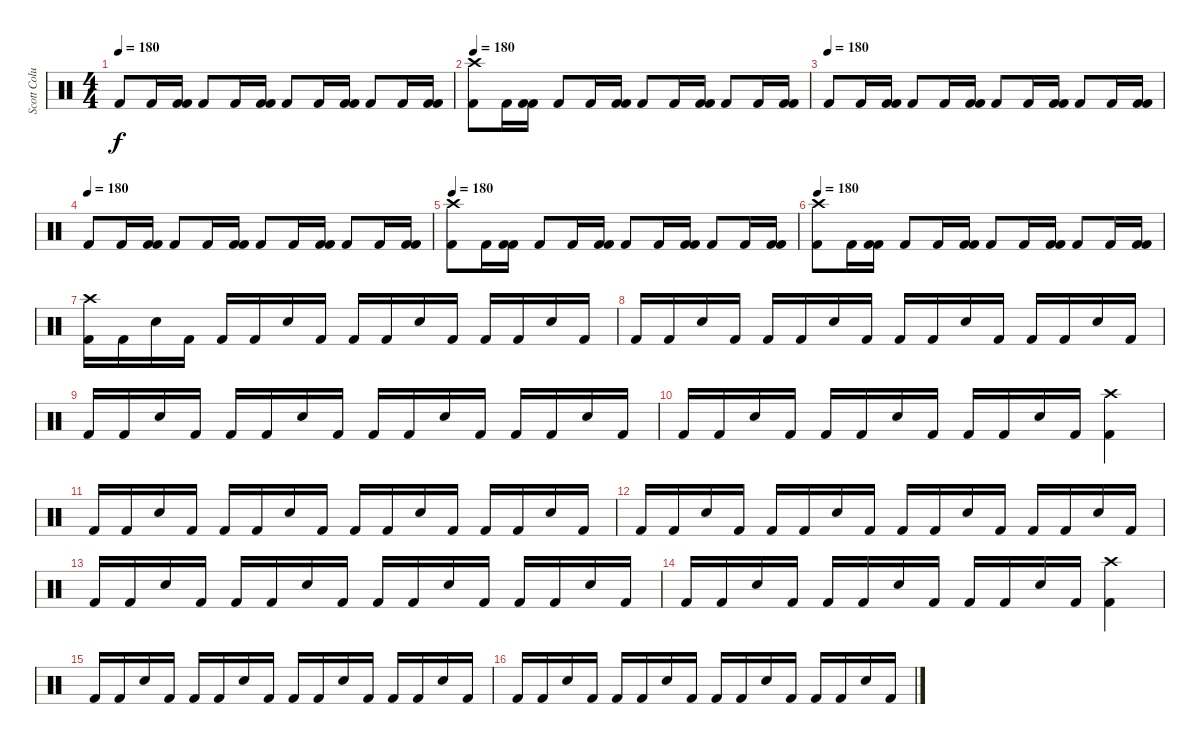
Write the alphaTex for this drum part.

\track ("Scott Columbus" "Scott Colu") {instrument percussion}
\staff {score}
\articulation defaults
\ts (4 4)
\tempo 180
\clef neutral
\ks c "Kick (hit) 2".8{dy f} "Kick (hit) 2".16
("Kick (hit) 2" "Kick (hit) 2").16 "Kick (hit) 2".8 "Kick (hit) 2".16 ("Kick (hit) 2" "Kick (hit) 2").16 "Kick (hit) 2".8 "Kick (hit) 2".16 ("Kick (hit) 2" "Kick (hit) 2").16 "Kick (hit) 2".8 "Kick (hit) 2".16 ("Kick (hit) 2" "Kick (hit) 2").16 |
\tempo 180
("Crash high (hit)" "Kick (hit) 2").8 "Kick (hit) 2".16 ("Kick (hit) 2" "Kick (hit) 2").16 "Kick (hit) 2".8 "Kick (hit) 2".16 ("Kick (hit) 2" "Kick (hit) 2").16 "Kick (hit) 2".8 "Kick (hit) 2".16 ("Kick (hit) 2" "Kick (hit) 2").16 "Kick (hit) 2".8 "Kick (hit) 2".16 ("Kick (hit) 2" "Kick (hit) 2").16 |
\tempo (180)
"Kick (hit) 2".8 "Kick (hit) 2".16 ("Kick (hit) 2" "Kick (hit) 2").16 "Kick (hit) 2".8 "Kick (hit) 2".16 ("Kick (hit) 2" "Kick (hit) 2").16 "Kick (hit) 2".8 "Kick (hit) 2".16 ("Kick (hit) 2" "Kick (hit) 2").16 "Kick (hit) 2".8 "Kick (hit) 2".16 ("Kick (hit) 2" "Kick (hit) 2").16 |
\tempo (180)
"Kick (hit) 2".8 "Kick (hit) 2".16 ("Kick (hit) 2" "Kick (hit) 2").16 "Kick (hit) 2".8 "Kick (hit) 2".16 ("Kick (hit) 2" "Kick (hit) 2").16 "Kick (hit) 2".8 "Kick (hit) 2".16 ("Kick (hit) 2" "Kick (hit) 2").16 "Kick (hit) 2".8 "Kick (hit) 2".16 ("Kick (hit) 2" "Kick (hit) 2").16 |
\tempo 180
("Crash high (hit)" "Kick (hit) 2").8 "Kick (hit) 2".16 ("Kick (hit) 2" "Kick (hit) 2").16 "Kick (hit) 2".8 "Kick (hit) 2".16 ("Kick (hit) 2" "Kick (hit) 2").16 "Kick (hit) 2".8 "Kick (hit) 2".16 ("Kick (hit) 2" "Kick (hit) 2").16 "Kick (hit) 2".8 "Kick (hit) 2".16 ("Kick (hit) 2" "Kick (hit) 2").16 |
\tempo 180
("Crash high (hit)" "Kick (hit) 2").8 "Kick (hit) 2".16 ("Kick (hit) 2" "Kick (hit) 2").16 "Kick (hit) 2".8 "Kick (hit) 2".16 ("Kick (hit) 2" "Kick (hit) 2").16 "Kick (hit) 2".8 "Kick (hit) 2".16 ("Kick (hit) 2" "Kick (hit) 2").16 "Kick (hit) 2".8 "Kick (hit) 2".16 ("Kick (hit) 2" "Kick (hit) 2").16 |
("Crash high (hit)" "Kick (hit) 2").16 "Kick (hit) 2".16 "Snare (hit) 2".16 "Kick (hit) 2".16 "Kick (hit) 2".16 "Kick (hit) 2".16 "Snare (hit) 2".16 "Kick (hit) 2".16 "Kick (hit) 2".16 "Kick (hit) 2".16 "Snare (hit) 2".16 "Kick (hit) 2".16 "Kick (hit) 2".16 "Kick (hit) 2".16 "Snare (hit) 2".16 "Kick (hit) 2".16 |
"Kick (hit) 2".16 "Kick (hit) 2".16 "Snare (hit) 2".16 "Kick (hit) 2".16 "Kick (hit) 2".16 "Kick (hit) 2".16 "Snare (hit) 2".16 "Kick (hit) 2".16 "Kick (hit) 2".16 "Kick (hit) 2".16 "Snare (hit) 2".16 "Kick (hit) 2".16 "Kick (hit) 2".16 "Kick (hit) 2".16 "Snare (hit) 2".16 "Kick (hit) 2".16 |
"Kick (hit) 2".16 "Kick (hit) 2".16 "Snare (hit) 2".16 "Kick (hit) 2".16 "Kick (hit) 2".16 "Kick (hit) 2".16 "Snare (hit) 2".16 "Kick (hit) 2".16 "Kick (hit) 2".16 "Kick (hit) 2".16 "Snare (hit) 2".16 "Kick (hit) 2".16 "Kick (hit) 2".16 "Kick (hit) 2".16 "Snare (hit) 2".16 "Kick (hit) 2".16 |
"Kick (hit) 2".16 "Kick (hit) 2".16 "Snare (hit) 2".16 "Kick (hit) 2".16 "Kick (hit) 2".16 "Kick (hit) 2".16 "Snare (hit) 2".16 "Kick (hit) 2".16 "Kick (hit) 2".16 "Kick (hit) 2".16 "Snare (hit) 2".16 "Kick (hit) 2".16 ("Kick (hit) 2" "Crash high (hit)").4 |
"Kick (hit) 2".16 "Kick (hit) 2".16 "Snare (hit) 2".16 "Kick (hit) 2".16 "Kick (hit) 2".16 "Kick (hit) 2".16 "Snare (hit) 2".16 "Kick (hit) 2".16 "Kick (hit) 2".16 "Kick (hit) 2".16 "Snare (hit) 2".16 "Kick (hit) 2".16 "Kick (hit) 2".16 "Kick (hit) 2".16 "Snare (hit) 2".16 "Kick (hit) 2".16 |
"Kick (hit) 2".16 "Kick (hit) 2".16 "Snare (hit) 2".16 "Kick (hit) 2".16 "Kick (hit) 2".16 "Kick (hit) 2".16 "Snare (hit) 2".16 "Kick (hit) 2".16 "Kick (hit) 2".16 "Kick (hit) 2".16 "Snare (hit) 2".16 "Kick (hit) 2".16 "Kick (hit) 2".16 "Kick (hit) 2".16 "Snare (hit) 2".16 "Kick (hit) 2".16 |
"Kick (hit) 2".16 "Kick (hit) 2".16 "Snare (hit) 2".16 "Kick (hit) 2".16 "Kick (hit) 2".16 "Kick (hit) 2".16 "Snare (hit) 2".16 "Kick (hit) 2".16 "Kick (hit) 2".16 "Kick (hit) 2".16 "Snare (hit) 2".16 "Kick (hit) 2".16 "Kick (hit) 2".16 "Kick (hit) 2".16 "Snare (hit) 2".16 "Kick (hit) 2".16 |
"Kick (hit) 2".16 "Kick (hit) 2".16 "Snare (hit) 2".16 "Kick (hit) 2".16 "Kick (hit) 2".16 "Kick (hit) 2".16 "Snare (hit) 2".16 "Kick (hit) 2".16 "Kick (hit) 2".16 "Kick (hit) 2".16 "Snare (hit) 2".16 "Kick (hit) 2".16 ("Kick (hit) 2" "Crash high (hit)").4 |
"Kick (hit) 2".16 "Kick (hit) 2".16 "Snare (hit) 2".16 "Kick (hit) 2".16 "Kick (hit) 2".16 "Kick (hit) 2".16 "Snare (hit) 2".16 "Kick (hit) 2".16 "Kick (hit) 2".16 "Kick (hit) 2".16 "Snare (hit) 2".16 "Kick (hit) 2".16 "Kick (hit) 2".16 "Kick (hit) 2".16 "Snare (hit) 2".16 "Kick (hit) 2".16 |
"Kick (hit) 2".16 "Kick (hit) 2".16 "Snare (hit) 2".16 "Kick (hit) 2".16 "Kick (hit) 2".16 "Kick (hit) 2".16 "Snare (hit) 2".16 "Kick (hit) 2".16 "Kick (hit) 2".16 "Kick (hit) 2".16 "Snare (hit) 2".16 "Kick (hit) 2".16 "Kick (hit) 2".16 "Kick (hit) 2".16 "Snare (hit) 2".16 "Kick (hit) 2".16
